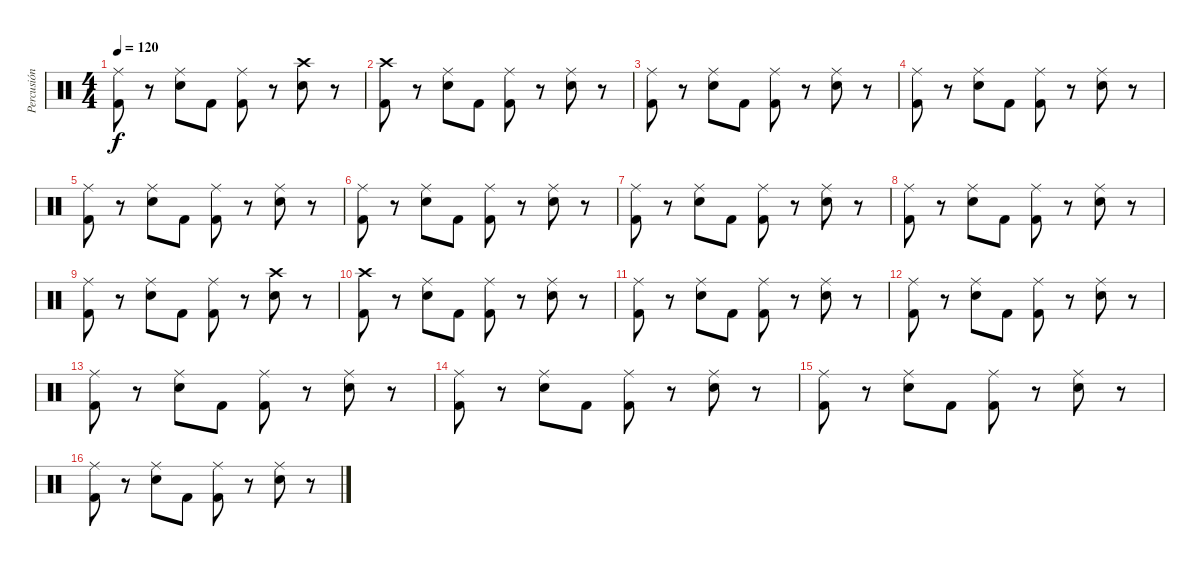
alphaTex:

\track ("Percusión" "Percusión") {instrument percussion}
\staff {score}
\articulation defaults
\ts (4 4)
\tempo 120
\clef neutral
\ks c
("Ride (middle)" "Kick (hit) 2").8{dy f} r.8 ("Ride (middle)" "Snare (hit) 2").8 "Kick (hit) 2".8 ("Ride (middle)" "Kick (hit) 2").8 r.8 ("Crash high (hit)" "Snare (hit) 2").8 r.8 |
("Crash high (hit)" "Kick (hit) 2").8 r.8 ("Ride (middle)" "Snare (hit) 2").8 "Kick (hit) 2".8 ("Ride (middle)" "Kick (hit) 2").8 r.8 ("Ride (middle)" "Snare (hit) 2").8 r.8 |
("Ride (middle)" "Kick (hit) 2").8 r.8 ("Ride (middle)" "Snare (hit) 2").8 "Kick (hit) 2".8 ("Ride (middle)" "Kick (hit) 2").8 r.8 ("Ride (middle)" "Snare (hit) 2").8 r.8 |
("Ride (middle)" "Kick (hit) 2").8 r.8 ("Ride (middle)" "Snare (hit) 2").8 "Kick (hit) 2".8 ("Ride (middle)" "Kick (hit) 2").8 r.8 ("Ride (middle)" "Snare (hit) 2").8 r.8 |
("Ride (middle)" "Kick (hit) 2").8 r.8 ("Ride (middle)" "Snare (hit) 2").8 "Kick (hit) 2".8 ("Ride (middle)" "Kick (hit) 2").8 r.8 ("Ride (middle)" "Snare (hit) 2").8 r.8 |
("Ride (middle)" "Kick (hit) 2").8 r.8 ("Ride (middle)" "Snare (hit) 2").8 "Kick (hit) 2".8 ("Ride (middle)" "Kick (hit) 2").8 r.8 ("Ride (middle)" "Snare (hit) 2").8 r.8 |
("Ride (middle)" "Kick (hit) 2").8 r.8 ("Ride (middle)" "Snare (hit) 2").8 "Kick (hit) 2".8 ("Ride (middle)" "Kick (hit) 2").8 r.8 ("Ride (middle)" "Snare (hit) 2").8 r.8 |
("Ride (middle)" "Kick (hit) 2").8 r.8 ("Ride (middle)" "Snare (hit) 2").8 "Kick (hit) 2".8 ("Ride (middle)" "Kick (hit) 2").8 r.8 ("Ride (middle)" "Snare (hit) 2").8 r.8 |
("Ride (middle)" "Kick (hit) 2").8 r.8 ("Ride (middle)" "Snare (hit) 2").8 "Kick (hit) 2".8 ("Ride (middle)" "Kick (hit) 2").8 r.8 ("Crash high (hit)" "Snare (hit) 2").8 r.8 |
("Crash high (hit)" "Kick (hit) 2").8 r.8 ("Ride (middle)" "Snare (hit) 2").8 "Kick (hit) 2".8 ("Ride (middle)" "Kick (hit) 2").8 r.8 ("Ride (middle)" "Snare (hit) 2").8 r.8 |
("Ride (middle)" "Kick (hit) 2").8 r.8 ("Ride (middle)" "Snare (hit) 2").8 "Kick (hit) 2".8 ("Ride (middle)" "Kick (hit) 2").8 r.8 ("Ride (middle)" "Snare (hit) 2").8 r.8 |
("Ride (middle)" "Kick (hit) 2").8 r.8 ("Ride (middle)" "Snare (hit) 2").8 "Kick (hit) 2".8 ("Ride (middle)" "Kick (hit) 2").8 r.8 ("Ride (middle)" "Snare (hit) 2").8 r.8 |
("Ride (middle)" "Kick (hit) 2").8 r.8 ("Ride (middle)" "Snare (hit) 2").8 "Kick (hit) 2".8 ("Ride (middle)" "Kick (hit) 2").8 r.8 ("Ride (middle)" "Snare (hit) 2").8 r.8 |
("Ride (middle)" "Kick (hit) 2").8 r.8 ("Ride (middle)" "Snare (hit) 2").8 "Kick (hit) 2".8 ("Ride (middle)" "Kick (hit) 2").8 r.8 ("Ride (middle)" "Snare (hit) 2").8 r.8 |
("Ride (middle)" "Kick (hit) 2").8 r.8 ("Ride (middle)" "Snare (hit) 2").8 "Kick (hit) 2".8 ("Ride (middle)" "Kick (hit) 2").8 r.8 ("Ride (middle)" "Snare (hit) 2").8 r.8 |
("Ride (middle)" "Kick (hit) 2").8 r.8 ("Ride (middle)" "Snare (hit) 2").8 "Kick (hit) 2".8 ("Ride (middle)" "Kick (hit) 2").8 r.8 ("Ride (middle)" "Snare (hit) 2").8 r.8
